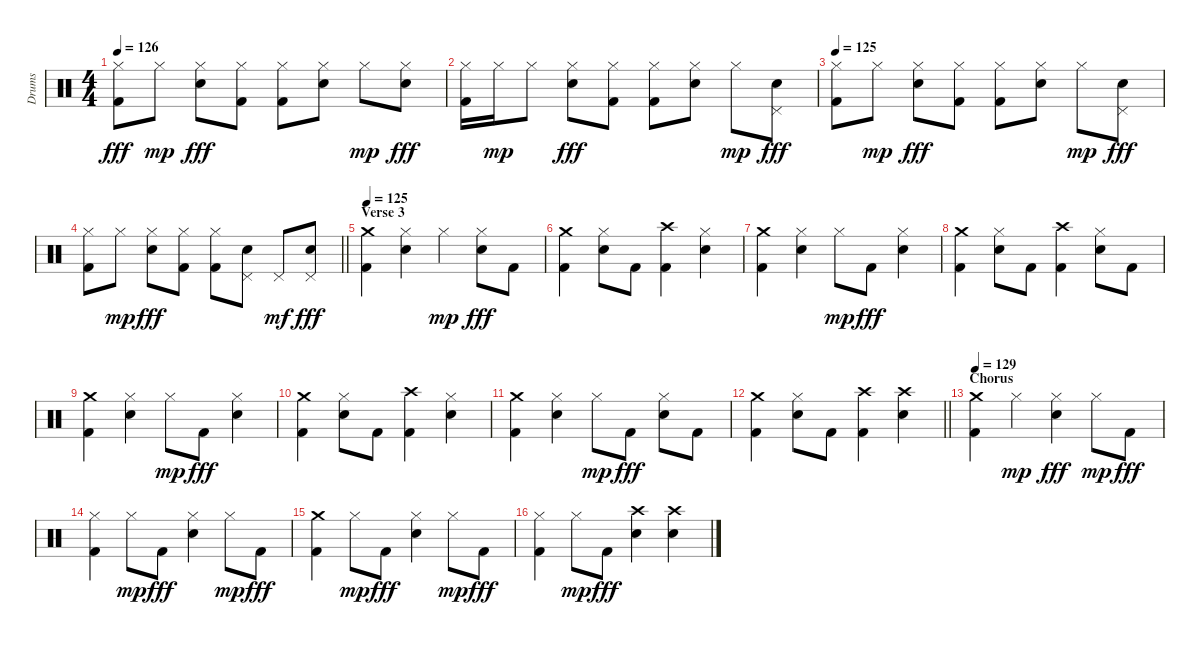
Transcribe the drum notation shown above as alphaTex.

\track ("Drums" "Drums") {instrument percussion}
\staff {score}
\articulation defaults
\ts (4 4)
\tempo 126
\clef neutral
\ks c
("Hi-Hat (closed)" "Kick (hit) 2").8{dy fff} "Hi-Hat (closed)".8{dy mp} ("Hi-Hat (closed)" "Electric Snare (hit)").8{dy fff} ("Hi-Hat (closed)" "Kick (hit) 2").8 ("Hi-Hat (closed)" "Kick (hit) 2").8 ("Hi-Hat (closed)" "Electric Snare (hit)").8 "Hi-Hat (closed)".8{dy mp} ("Hi-Hat (closed)" "Electric Snare (hit)").8{dy fff} |
("Hi-Hat (closed)" "Kick (hit) 2").16 "Hi-Hat (closed)".16{dy mp} "Hi-Hat (closed)".8 ("Hi-Hat (closed)" "Electric Snare (hit)").8{dy fff} ("Hi-Hat (closed)" "Kick (hit) 2").8 ("Hi-Hat (closed)" "Kick (hit) 2").8 ("Hi-Hat (closed)" "Electric Snare (hit)").8 "Hi-Hat (closed)".8{dy mp} ("Pedal Hi-Hat (hit)" "Electric Snare (hit)").8{dy fff} |
\tempo 125
("Hi-Hat (closed)" "Kick (hit) 2").8 "Hi-Hat (closed)".8{dy mp} ("Hi-Hat (closed)" "Electric Snare (hit)").8{dy fff} ("Hi-Hat (closed)" "Kick (hit) 2").8 ("Hi-Hat (closed)" "Kick (hit) 2").8 ("Hi-Hat (closed)" "Electric Snare (hit)").8 "Hi-Hat (closed)".8{dy mp} ("Pedal Hi-Hat (hit)" "Electric Snare (hit)").8{dy fff} |
\barLineRight lightlight
("Hi-Hat (closed)" "Kick (hit) 2").8 "Hi-Hat (closed)".8{dy mp} ("Hi-Hat (closed)" "Electric Snare (hit)").8{dy fff} ("Hi-Hat (closed)" "Kick (hit) 2").8 ("Hi-Hat (closed)" "Kick (hit) 2").8 ("Pedal Hi-Hat (hit)" "Electric Snare (hit)").8 "Pedal Hi-Hat (hit)".8{dy mf} ("Pedal Hi-Hat (hit)" "Electric Snare (hit)").8{dy fff} |
\section ("" "Verse 3")
\tempo 125
("Crash medium (hit)" "Kick (hit) 2").4 ("Hi-Hat (closed)" "Electric Snare (hit)").4 "Hi-Hat (closed)".4{dy mp} ("Hi-Hat (closed)" "Electric Snare (hit)").8{dy fff} "Kick (hit) 2".8 |
("Crash medium (hit)" "Kick (hit) 2").4 ("Hi-Hat (closed)" "Electric Snare (hit)").8 "Kick (hit) 2".8 ("Crash high (hit)" "Kick (hit) 2").4 ("Hi-Hat (closed)" "Electric Snare (hit)").4 |
("Crash medium (hit)" "Kick (hit) 2").4 ("Hi-Hat (closed)" "Electric Snare (hit)").4 "Hi-Hat (closed)".8{dy mp} "Kick (hit) 2".8{dy fff} ("Hi-Hat (closed)" "Electric Snare (hit)").4 |
("Crash medium (hit)" "Kick (hit) 2").4 ("Hi-Hat (closed)" "Electric Snare (hit)").8 "Kick (hit) 2".8 ("Crash high (hit)" "Kick (hit) 2").4 ("Hi-Hat (closed)" "Electric Snare (hit)").8 "Kick (hit) 2".8 |
("Crash medium (hit)" "Kick (hit) 2").4 ("Hi-Hat (closed)" "Electric Snare (hit)").4 "Hi-Hat (closed)".8{dy mp} "Kick (hit) 2".8{dy fff} ("Hi-Hat (closed)" "Electric Snare (hit)").4 |
("Crash medium (hit)" "Kick (hit) 2").4 ("Hi-Hat (closed)" "Electric Snare (hit)").8 "Kick (hit) 2".8 ("Crash high (hit)" "Kick (hit) 2").4 ("Hi-Hat (closed)" "Electric Snare (hit)").4 |
("Crash medium (hit)" "Kick (hit) 2").4 ("Hi-Hat (closed)" "Electric Snare (hit)").4 "Hi-Hat (closed)".8{dy mp} "Kick (hit) 2".8{dy fff} ("Hi-Hat (closed)" "Electric Snare (hit)").8 "Kick (hit) 2".8 |
\barLineRight lightlight
("Crash medium (hit)" "Kick (hit) 2").4 ("Hi-Hat (closed)" "Electric Snare (hit)").8 "Kick (hit) 2".8 ("Crash high (hit)" "Kick (hit) 2").4 ("Crash high (hit)" "Electric Snare (hit)").4 |
\section ("" "Chorus")
\tempo 129
("Crash medium (hit)" "Kick (hit) 2").4 "Hi-Hat (closed)".4{dy mp} ("Hi-Hat (closed)" "Electric Snare (hit)").4{dy fff} "Hi-Hat (closed)".8{dy mp} "Kick (hit) 2".8{dy fff} |
("Hi-Hat (closed)" "Kick (hit) 2").4 "Hi-Hat (closed)".8{dy mp} "Kick (hit) 2".8{dy fff} ("Hi-Hat (closed)" "Electric Snare (hit)").4 "Hi-Hat (closed)".8{dy mp} "Kick (hit) 2".8{dy fff} |
("Crash medium (hit)" "Kick (hit) 2").4 "Hi-Hat (closed)".8{dy mp} "Kick (hit) 2".8{dy fff} ("Hi-Hat (closed)" "Electric Snare (hit)").4 "Hi-Hat (closed)".8{dy mp} "Kick (hit) 2".8{dy fff} |
("Hi-Hat (closed)" "Kick (hit) 2").4 "Hi-Hat (closed)".8{dy mp} "Kick (hit) 2".8{dy fff} ("Crash high (hit)" "Electric Snare (hit)").4 ("Crash high (hit)" "Electric Snare (hit)").4
